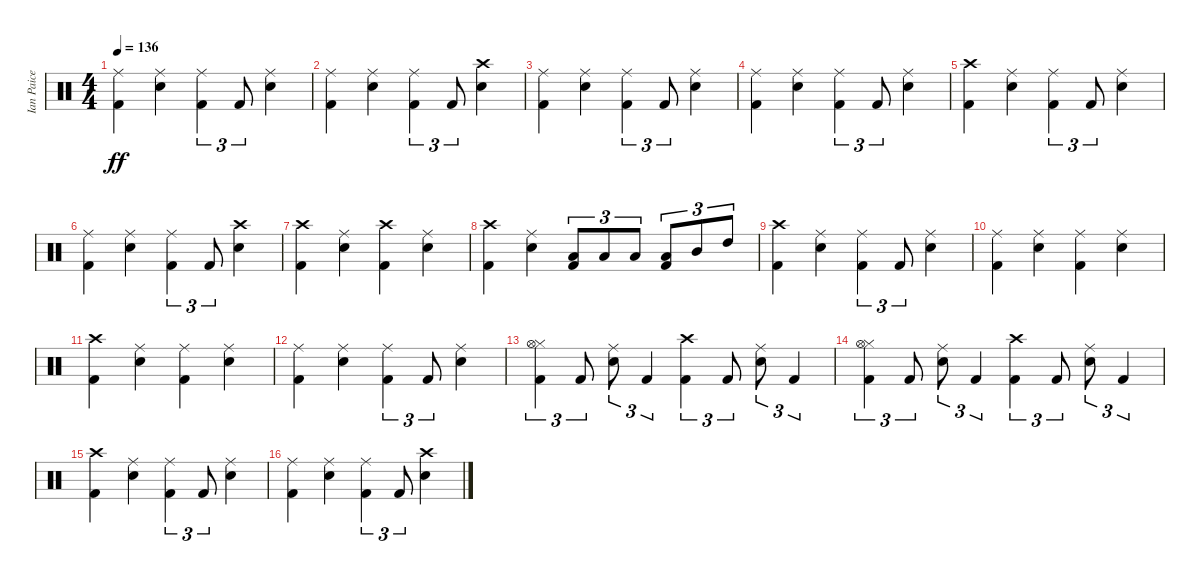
\track ("Ian Paice" "Ian Paice") {instrument percussion}
\staff {score}
\articulation defaults
\ts (4 4)
\tempo 136
\clef neutral
\ks c
("Ride (middle)" "Kick (hit) 2").4{dy ff} ("Ride (middle)" "Electric Snare (hit)").4 ("Ride (middle)" "Kick (hit) 2").4{tu (3 2)} "Kick (hit) 2".8{tu (3 2)} ("Ride (middle)" "Electric Snare (hit)").4 |
("Ride (middle)" "Kick (hit) 2").4 ("Ride (middle)" "Electric Snare (hit)").4 ("Ride (middle)" "Kick (hit) 2").4{tu (3 2)} "Kick (hit) 2".8{tu (3 2)} ("Crash high (hit)" "Electric Snare (hit)").4 |
("Ride (middle)" "Kick (hit) 2").4 ("Ride (middle)" "Electric Snare (hit)").4 ("Ride (middle)" "Kick (hit) 2").4{tu (3 2)} "Kick (hit) 2".8{tu (3 2)} ("Ride (middle)" "Electric Snare (hit)").4 |
("Ride (middle)" "Kick (hit) 2").4 ("Ride (middle)" "Electric Snare (hit)").4 ("Ride (middle)" "Kick (hit) 2").4{tu (3 2)} "Kick (hit) 2".8{tu (3 2)} ("Ride (middle)" "Electric Snare (hit)").4 |
("Crash high (hit)" "Kick (hit) 2").4 ("Ride (middle)" "Electric Snare (hit)").4 ("Ride (middle)" "Kick (hit) 2").4{tu (3 2)} "Kick (hit) 2".8{tu (3 2)} ("Ride (middle)" "Electric Snare (hit)").4 |
("Ride (middle)" "Kick (hit) 2").4 ("Ride (middle)" "Electric Snare (hit)").4 ("Ride (middle)" "Kick (hit) 2").4{tu (3 2)} "Kick (hit) 2".8{tu (3 2)} ("Crash high (hit)" "Electric Snare (hit)").4 |
("Crash high (hit)" "Kick (hit) 2").4 ("Ride (middle)" "Electric Snare (hit)").4 ("Crash high (hit)" "Kick (hit) 2").4 ("Ride (middle)" "Electric Snare (hit)").4 |
("Crash high (hit)" "Kick (hit) 2").4 ("Ride (middle)" "Electric Snare (hit)").4 ("Low Tom (hit)" "Kick (hit) 2").8{tu (3 2)} "Low Tom (hit)".8{tu (3 2)} "Low Tom (hit)".8{tu (3 2)} ("Low Tom (hit)" "Kick (hit) 2").8{tu (3 2)} "Mid Tom (hit)".8{tu (3 2)} "High Tom (hit)".8{tu (3 2)} |
("Crash high (hit)" "Kick (hit) 2").4 ("Ride (middle)" "Electric Snare (hit)").4 ("Ride (middle)" "Kick (hit) 2").4{tu (3 2)} "Kick (hit) 2".8{tu (3 2)} ("Ride (middle)" "Electric Snare (hit)").4 |
("Ride (middle)" "Kick (hit) 2").4 ("Ride (middle)" "Electric Snare (hit)").4 ("Ride (middle)" "Kick (hit) 2").4 ("Ride (middle)" "Electric Snare (hit)").4 |
("Crash high (hit)" "Kick (hit) 2").4 ("Ride (middle)" "Electric Snare (hit)").4 ("Ride (middle)" "Kick (hit) 2").4 ("Ride (middle)" "Electric Snare (hit)").4 |
("Ride (middle)" "Kick (hit) 2").4 ("Ride (middle)" "Electric Snare (hit)").4 ("Ride (middle)" "Kick (hit) 2").4{tu (3 2)} "Kick (hit) 2".8{tu (3 2)} ("Ride (middle)" "Electric Snare (hit)").4 |
("Hi-Hat (closed)" "Hi-Hat (open)" "Kick (hit) 2").4{tu (3 2)} "Kick (hit) 2".8{tu (3 2)} ("Ride (middle)" "Electric Snare (hit)").8{tu (3 2)} "Kick (hit) 2".4{tu (3 2)} ("Crash high (hit)" "Kick (hit) 2").4{tu (3 2)} "Kick (hit) 2".8{tu (3 2)} ("Ride (middle)" "Electric Snare (hit)").8{tu (3 2)} "Kick (hit) 2".4{tu (3 2)} |
("Hi-Hat (closed)" "Hi-Hat (open)" "Kick (hit) 2").4{tu (3 2)} "Kick (hit) 2".8{tu (3 2)} ("Ride (middle)" "Electric Snare (hit)").8{tu (3 2)} "Kick (hit) 2".4{tu (3 2)} ("Crash high (hit)" "Kick (hit) 2").4{tu (3 2)} "Kick (hit) 2".8{tu (3 2)} ("Ride (middle)" "Electric Snare (hit)").8{tu (3 2)} "Kick (hit) 2".4{tu (3 2)} |
("Crash high (hit)" "Kick (hit) 2").4 ("Ride (middle)" "Electric Snare (hit)").4 ("Ride (middle)" "Kick (hit) 2").4{tu (3 2)} "Kick (hit) 2".8{tu (3 2)} ("Ride (middle)" "Electric Snare (hit)").4 |
("Ride (middle)" "Kick (hit) 2").4 ("Ride (middle)" "Electric Snare (hit)").4 ("Ride (middle)" "Kick (hit) 2").4{tu (3 2)} "Kick (hit) 2".8{tu (3 2)} ("Crash high (hit)" "Electric Snare (hit)").4
